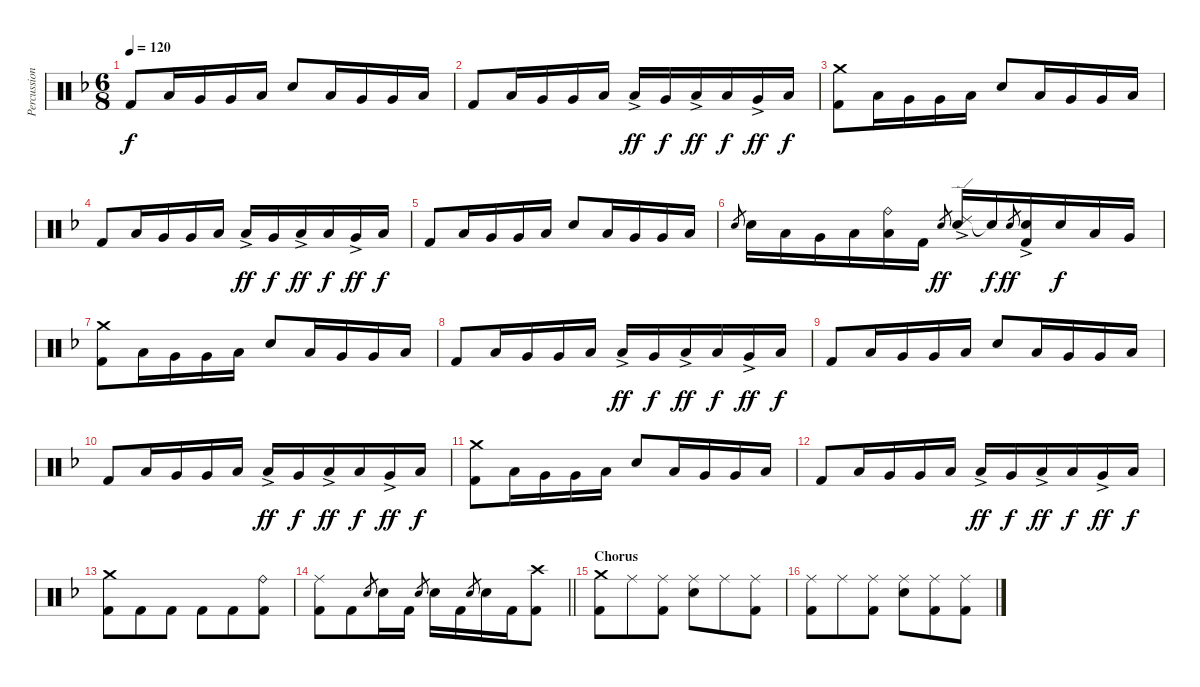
\track ("Percussion" "Percussion") {instrument percussion}
\staff {score}
\articulation defaults
\ts (6 8)
\tempo 120
\clef neutral
\ks f "Kick (hit) 2".8{dy f} "Low Tom (hit)".16 "Very Low Tom (hit)".16 "Very Low Tom (hit)".16 "Low Floor Tom (hit)".16 "Electric Snare (hit)".8 "Low Tom (hit)".16 "Very Low Tom (hit)".16 "Very Low Tom (hit)".16 "Low Floor Tom (hit)".16
|
"Kick (hit) 2".8 "Low Tom (hit)".16 "Very Low Tom (hit)".16 "Very Low Tom (hit)".16 "Low Floor Tom (hit)".16 "Low Tom (hit)"{ac}.16{dy ff} "Very Low Tom (hit)".16{dy f} "Low Tom (hit)"{ac}.16{dy ff} "Low Floor Tom (hit)".16{dy f} "Very Low Tom (hit)"{ac}.16{dy ff} "Low Floor Tom (hit)".16{dy f} |
("Crash medium (hit)" "Kick (hit) 2").8 "Low Tom (hit)".16 "Very Low Tom (hit)".16 "Very Low Tom (hit)".16 "Low Floor Tom (hit)".16 "Electric Snare (hit)".8 "Low Tom (hit)".16 "Very Low Tom (hit)".16 "Very Low Tom (hit)".16 "Low Floor Tom (hit)".16 |
"Kick (hit) 2".8 "Low Tom (hit)".16 "Very Low Tom (hit)".16 "Very Low Tom (hit)".16 "Low Floor Tom (hit)".16 "Low Tom (hit)"{ac}.16{dy ff} "Very Low Tom (hit)".16{dy f} "Low Tom (hit)"{ac}.16{dy ff} "Low Floor Tom (hit)".16{dy f} "Very Low Tom (hit)"{ac}.16{dy ff} "Low Floor Tom (hit)".16{dy f} |
"Kick (hit) 2".8 "Low Tom (hit)".16 "Very Low Tom (hit)".16 "Very Low Tom (hit)".16 "Low Floor Tom (hit)".16 "Electric Snare (hit)".8 "Low Tom (hit)".16 "Very Low Tom (hit)".16 "Very Low Tom (hit)".16 "Low Floor Tom (hit)".16 |
"Electric Snare (hit)".8{gr} "Electric Snare (hit)".16 "Low Tom (hit)".16 "Very Low Tom (hit)".16 "Low Floor Tom (hit)".16 ("Ride (bell)" "Low Tom (hit)").16 "Kick (hit) 2".16 "Electric Snare (hit)".8{gr dy ff} ("Ride (edge) 2" "Electric Snare (hit)"{ac}).16 "Electric Snare (hit)"{t}.16{dy f} "Electric Snare (hit)".8{gr dy ff} ("Electric Snare (hit)"{ac} "Kick (hit) 2").16 "Electric Snare (hit)".16{dy f} "Low Tom (hit)".16 "Very Low Tom (hit)".16 |
("Crash medium (hit)" "Kick (hit) 2").8 "Low Tom (hit)".16 "Very Low Tom (hit)".16 "Very Low Tom (hit)".16 "Low Floor Tom (hit)".16 "Electric Snare (hit)".8 "Low Tom (hit)".16 "Very Low Tom (hit)".16 "Very Low Tom (hit)".16 "Low Floor Tom (hit)".16 |
"Kick (hit) 2".8 "Low Tom (hit)".16 "Very Low Tom (hit)".16 "Very Low Tom (hit)".16 "Low Floor Tom (hit)".16 "Low Tom (hit)"{ac}.16{dy ff} "Very Low Tom (hit)".16{dy f} "Low Tom (hit)"{ac}.16{dy ff} "Low Floor Tom (hit)".16{dy f} "Very Low Tom (hit)"{ac}.16{dy ff} "Low Floor Tom (hit)".16{dy f} |
"Kick (hit) 2".8 "Low Tom (hit)".16 "Very Low Tom (hit)".16 "Very Low Tom (hit)".16 "Low Floor Tom (hit)".16 "Electric Snare (hit)".8 "Low Tom (hit)".16 "Very Low Tom (hit)".16 "Very Low Tom (hit)".16 "Low Floor Tom (hit)".16 |
"Kick (hit) 2".8 "Low Tom (hit)".16 "Very Low Tom (hit)".16 "Very Low Tom (hit)".16 "Low Floor Tom (hit)".16 "Low Tom (hit)"{ac}.16{dy ff} "Very Low Tom (hit)".16{dy f} "Low Tom (hit)"{ac}.16{dy ff} "Low Floor Tom (hit)".16{dy f} "Very Low Tom (hit)"{ac}.16{dy ff} "Low Floor Tom (hit)".16{dy f} |
("Crash medium (hit)" "Kick (hit) 2").8 "Low Tom (hit)".16 "Very Low Tom (hit)".16 "Very Low Tom (hit)".16 "Low Floor Tom (hit)".16 "Electric Snare (hit)".8 "Low Tom (hit)".16 "Very Low Tom (hit)".16 "Very Low Tom (hit)".16 "Low Floor Tom (hit)".16 |
"Kick (hit) 2".8 "Low Tom (hit)".16 "Very Low Tom (hit)".16 "Very Low Tom (hit)".16 "Low Floor Tom (hit)".16 "Low Tom (hit)"{ac}.16{dy ff} "Very Low Tom (hit)".16{dy f} "Low Tom (hit)"{ac}.16{dy ff} "Low Floor Tom (hit)".16{dy f} "Very Low Tom (hit)"{ac}.16{dy ff} "Low Floor Tom (hit)".16{dy f} |
("Crash medium (hit)" "Kick (hit) 2").8{volume 14} "Kick (hit) 2".8 "Kick (hit) 2".8 "Kick (hit) 2".8 "Kick (hit) 2".8 ("Ride (bell)" "Kick (hit) 2").8 |
\barLineRight lightlight
("Ride (middle)" "Kick (hit) 2").8 "Kick (hit) 2".8 "Electric Snare (hit)".8{gr} "Electric Snare (hit)".16 "Kick (hit) 2".16 "Electric Snare (hit)".8{gr} "Electric Snare (hit)".16 "Kick (hit) 2".16 "Electric Snare (hit)".8{gr} "Electric Snare (hit)".16 "Kick (hit) 2".16 ("Crash high (hit)" "Kick (hit) 2").8 |
\section ("" "Chorus")
("Crash medium (hit)" "Kick (hit) 2").8 "Ride (middle)".8 ("Ride (middle)" "Kick (hit) 2").8 ("Ride (middle)" "Electric Snare (hit)").8 "Ride (middle)".8 ("Ride (middle)" "Kick (hit) 2").8 |
("Ride (middle)" "Kick (hit) 2").8 "Ride (middle)".8 ("Ride (middle)" "Kick (hit) 2").8 ("Ride (middle)" "Electric Snare (hit)").8 ("Ride (middle)" "Kick (hit) 2").8 ("Ride (middle)" "Kick (hit) 2").8
